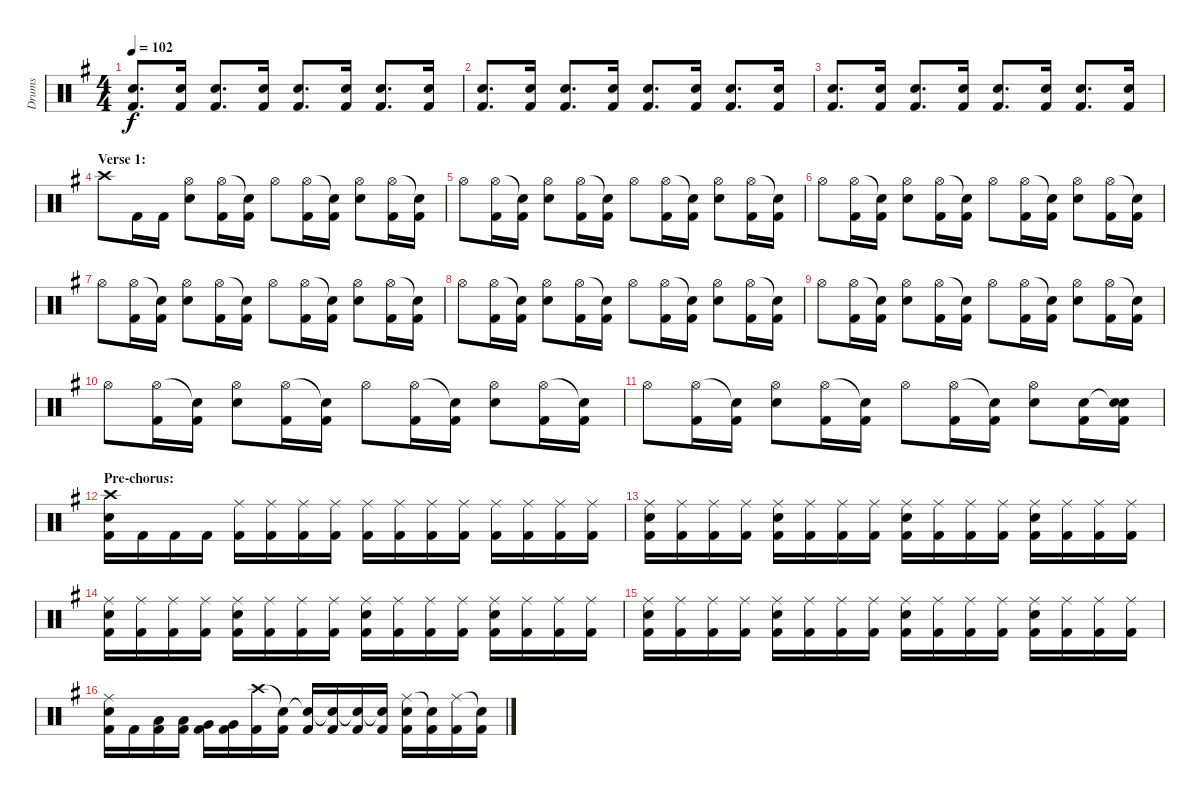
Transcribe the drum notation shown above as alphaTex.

\track ("Drums" "Drums") {instrument percussion}
\staff {score}
\articulation defaults
\ts (4 4)
\tempo 102
\clef neutral
\ks eminor
("Snare (hit) 2" "Kick (hit) 2").8{d dy f} ("Snare (hit) 2" "Kick (hit) 2").16 ("Snare (hit) 2" "Kick (hit) 2").8{d} ("Snare (hit) 2" "Kick (hit) 2").16 ("Snare (hit) 2" "Kick (hit) 2").8{d} ("Snare (hit) 2" "Kick (hit) 2").16 ("Snare (hit) 2" "Kick (hit) 2").8{d} ("Snare (hit) 2" "Kick (hit) 2").16 |
("Snare (hit) 2" "Kick (hit) 2").8{d} ("Snare (hit) 2" "Kick (hit) 2").16 ("Snare (hit) 2" "Kick (hit) 2").8{d} ("Snare (hit) 2" "Kick (hit) 2").16 ("Snare (hit) 2" "Kick (hit) 2").8{d} ("Snare (hit) 2" "Kick (hit) 2").16 ("Snare (hit) 2" "Kick (hit) 2").8{d} ("Snare (hit) 2" "Kick (hit) 2").16 |
("Snare (hit) 2" "Kick (hit) 2").8{d} ("Snare (hit) 2" "Kick (hit) 2").16 ("Snare (hit) 2" "Kick (hit) 2").8{d} ("Snare (hit) 2" "Kick (hit) 2").16 ("Snare (hit) 2" "Kick (hit) 2").8{d} ("Snare (hit) 2" "Kick (hit) 2").16 ("Snare (hit) 2" "Kick (hit) 2").8{d} ("Snare (hit) 2" "Kick (hit) 2").16 |
\section ("" "Verse 1:")
"Crash high (hit)".8 "Kick (hit) 2".16 "Kick (hit) 2".16 ("Hi-Hat (open)" "Snare (hit) 2").8 ("Hi-Hat (open)" "Kick (hit) 2").16 ("Snare (hit)"{t} "Kick (hit) 2").16 "Hi-Hat (open)".8 ("Hi-Hat (open)" "Kick (hit) 2").16 ("Snare (hit)"{t} "Kick (hit) 2").16 ("Hi-Hat (open)" "Snare (hit) 2").8 ("Hi-Hat (open)" "Kick (hit) 2").16 ("Snare (hit)"{t} "Kick (hit) 2").16 |
"Hi-Hat (open)".8 ("Hi-Hat (open)" "Kick (hit) 2").16 ("Snare (hit)"{t} "Kick (hit) 2").16 ("Hi-Hat (open)" "Snare (hit) 2").8 ("Hi-Hat (open)" "Kick (hit) 2").16 ("Snare (hit)"{t} "Kick (hit) 2").16 "Hi-Hat (open)".8 ("Hi-Hat (open)" "Kick (hit) 2").16 ("Snare (hit)"{t} "Kick (hit) 2").16 ("Hi-Hat (open)" "Snare (hit) 2").8 ("Hi-Hat (open)" "Kick (hit) 2").16 ("Snare (hit)"{t} "Kick (hit) 2").16 |
"Hi-Hat (open)".8 ("Hi-Hat (open)" "Kick (hit) 2").16 ("Snare (hit)"{t} "Kick (hit) 2").16 ("Hi-Hat (open)" "Snare (hit) 2").8 ("Hi-Hat (open)" "Kick (hit) 2").16 ("Snare (hit)"{t} "Kick (hit) 2").16 "Hi-Hat (open)".8 ("Hi-Hat (open)" "Kick (hit) 2").16 ("Snare (hit)"{t} "Kick (hit) 2").16 ("Hi-Hat (open)" "Snare (hit) 2").8 ("Hi-Hat (open)" "Kick (hit) 2").16 ("Snare (hit)"{t} "Kick (hit) 2").16 |
"Hi-Hat (open)".8 ("Hi-Hat (open)" "Kick (hit) 2").16 ("Snare (hit)"{t} "Kick (hit) 2").16 ("Hi-Hat (open)" "Snare (hit) 2").8 ("Hi-Hat (open)" "Kick (hit) 2").16 ("Snare (hit)"{t} "Kick (hit) 2").16 "Hi-Hat (open)".8 ("Hi-Hat (open)" "Kick (hit) 2").16 ("Snare (hit)"{t} "Kick (hit) 2").16 ("Hi-Hat (open)" "Snare (hit) 2").8 ("Hi-Hat (open)" "Kick (hit) 2").16 ("Snare (hit)"{t} "Kick (hit) 2").16 |
"Hi-Hat (open)".8 ("Hi-Hat (open)" "Kick (hit) 2").16 ("Snare (hit)"{t} "Kick (hit) 2").16 ("Hi-Hat (open)" "Snare (hit) 2").8 ("Hi-Hat (open)" "Kick (hit) 2").16 ("Snare (hit)"{t} "Kick (hit) 2").16 "Hi-Hat (open)".8 ("Hi-Hat (open)" "Kick (hit) 2").16 ("Snare (hit)"{t} "Kick (hit) 2").16 ("Hi-Hat (open)" "Snare (hit) 2").8 ("Hi-Hat (open)" "Kick (hit) 2").16 ("Snare (hit)"{t} "Kick (hit) 2").16 |
"Hi-Hat (open)".8 ("Hi-Hat (open)" "Kick (hit) 2").16 ("Snare (hit)"{t} "Kick (hit) 2").16 ("Hi-Hat (open)" "Snare (hit) 2").8 ("Hi-Hat (open)" "Kick (hit) 2").16 ("Snare (hit)"{t} "Kick (hit) 2").16 "Hi-Hat (open)".8 ("Hi-Hat (open)" "Kick (hit) 2").16 ("Snare (hit)"{t} "Kick (hit) 2").16 ("Hi-Hat (open)" "Snare (hit) 2").8 ("Hi-Hat (open)" "Kick (hit) 2").16 ("Snare (hit)"{t} "Kick (hit) 2").16 |
"Hi-Hat (open)".8 ("Hi-Hat (open)" "Kick (hit) 2").16 ("Snare (hit)"{t} "Kick (hit) 2").16 ("Hi-Hat (open)" "Snare (hit) 2").8 ("Hi-Hat (open)" "Kick (hit) 2").16 ("Snare (hit)"{t} "Kick (hit) 2").16 "Hi-Hat (open)".8 ("Hi-Hat (open)" "Kick (hit) 2").16 ("Snare (hit)"{t} "Kick (hit) 2").16 ("Hi-Hat (open)" "Snare (hit) 2").8 ("Hi-Hat (open)" "Kick (hit) 2").16 ("Snare (hit)"{t} "Kick (hit) 2").16 |
"Hi-Hat (open)".8 ("Hi-Hat (open)" "Kick (hit) 2").16 ("Snare (hit)"{t} "Kick (hit) 2").16 ("Hi-Hat (open)" "Snare (hit) 2").8 ("Hi-Hat (open)" "Kick (hit) 2").16 ("Snare (hit)"{t} "Kick (hit) 2").16 "Hi-Hat (open)".8 ("Hi-Hat (open)" "Kick (hit) 2").16 ("Snare (hit)"{t} "Kick (hit) 2").16 ("Hi-Hat (open)" "Snare (hit) 2").8 ("Snare (hit) 2" "Kick (hit) 2").16 ("Snare (hit)"{t} "Snare (hit) 2" "Kick (hit) 2").16 |
\section ("" "Pre-chorus:")
("Crash high (hit)" "Snare (hit) 2" "Kick (hit) 2").16 "Kick (hit) 2".16 "Kick (hit) 2".16 "Kick (hit) 2".16 ("Ride (middle)" "Kick (hit) 2").16 ("Ride (middle)" "Kick (hit) 2").16 ("Ride (middle)" "Kick (hit) 2").16 ("Ride (middle)" "Kick (hit) 2").16 ("Ride (middle)" "Kick (hit) 2").16 ("Ride (middle)" "Kick (hit) 2").16 ("Ride (middle)" "Kick (hit) 2").16 ("Ride (middle)" "Kick (hit) 2").16 ("Ride (middle)" "Kick (hit) 2").16 ("Ride (middle)" "Kick (hit) 2").16 ("Ride (middle)" "Kick (hit) 2").16 ("Ride (middle)" "Kick (hit) 2").16 |
("Ride (middle)" "Snare (hit) 2" "Kick (hit) 2").16 ("Ride (middle)" "Kick (hit) 2").16 ("Ride (middle)" "Kick (hit) 2").16 ("Ride (middle)" "Kick (hit) 2").16 ("Ride (middle)" "Snare (hit) 2" "Kick (hit) 2").16 ("Ride (middle)" "Kick (hit) 2").16 ("Ride (middle)" "Kick (hit) 2").16 ("Ride (middle)" "Kick (hit) 2").16 ("Ride (middle)" "Snare (hit) 2" "Kick (hit) 2").16 ("Ride (middle)" "Kick (hit) 2").16 ("Ride (middle)" "Kick (hit) 2").16 ("Ride (middle)" "Kick (hit) 2").16 ("Ride (middle)" "Snare (hit) 2" "Kick (hit) 2").16 ("Ride (middle)" "Kick (hit) 2").16 ("Ride (middle)" "Kick (hit) 2").16 ("Ride (middle)" "Kick (hit) 2").16 |
("Ride (middle)" "Snare (hit) 2" "Kick (hit) 2").16 ("Ride (middle)" "Kick (hit) 2").16 ("Ride (middle)" "Kick (hit) 2").16 ("Ride (middle)" "Kick (hit) 2").16 ("Ride (middle)" "Snare (hit) 2" "Kick (hit) 2").16 ("Ride (middle)" "Kick (hit) 2").16 ("Ride (middle)" "Kick (hit) 2").16 ("Ride (middle)" "Kick (hit) 2").16 ("Ride (middle)" "Snare (hit) 2" "Kick (hit) 2").16 ("Ride (middle)" "Kick (hit) 2").16 ("Ride (middle)" "Kick (hit) 2").16 ("Ride (middle)" "Kick (hit) 2").16 ("Ride (middle)" "Snare (hit) 2" "Kick (hit) 2").16 ("Ride (middle)" "Kick (hit) 2").16 ("Ride (middle)" "Kick (hit) 2").16 ("Ride (middle)" "Kick (hit) 2").16 |
("Ride (middle)" "Snare (hit) 2" "Kick (hit) 2").16 ("Ride (middle)" "Kick (hit) 2").16 ("Ride (middle)" "Kick (hit) 2").16 ("Ride (middle)" "Kick (hit) 2").16 ("Ride (middle)" "Snare (hit) 2" "Kick (hit) 2").16 ("Ride (middle)" "Kick (hit) 2").16 ("Ride (middle)" "Kick (hit) 2").16 ("Ride (middle)" "Kick (hit) 2").16 ("Ride (middle)" "Snare (hit) 2" "Kick (hit) 2").16 ("Ride (middle)" "Kick (hit) 2").16 ("Ride (middle)" "Kick (hit) 2").16 ("Ride (middle)" "Kick (hit) 2").16 ("Ride (middle)" "Snare (hit) 2" "Kick (hit) 2").16 ("Ride (middle)" "Kick (hit) 2").16 ("Ride (middle)" "Kick (hit) 2").16 ("Ride (middle)" "Kick (hit) 2").16 |
("Ride (middle)" "Snare (hit) 2" "Kick (hit) 2").16 "Kick (hit) 2".16 ("Low Tom (hit)" "Kick (hit) 2").16 ("Low Tom (hit)" "Kick (hit) 2").16 ("Very Low Tom (hit)" "Kick (hit) 2").16 ("Very Low Tom (hit)" "Kick (hit) 2").16 ("Crash high (hit)" "Kick (hit) 2").16 ("Snare (hit)"{t} "Kick (hit) 2").16 ("Snare (hit)"{t} "Kick (hit) 2").16 ("Snare (hit)"{t} "Kick (hit) 2").16 ("Snare (hit)"{t} "Kick (hit) 2").16 ("Snare (hit)"{t} "Kick (hit) 2").16 ("Ride (middle)" "Snare (hit) 2" "Kick (hit) 2").16 ("Snare (hit)"{t} "Kick (hit) 2").16 ("Ride (middle)" "Kick (hit) 2").16 ("Snare (hit)"{t} "Kick (hit) 2").16
